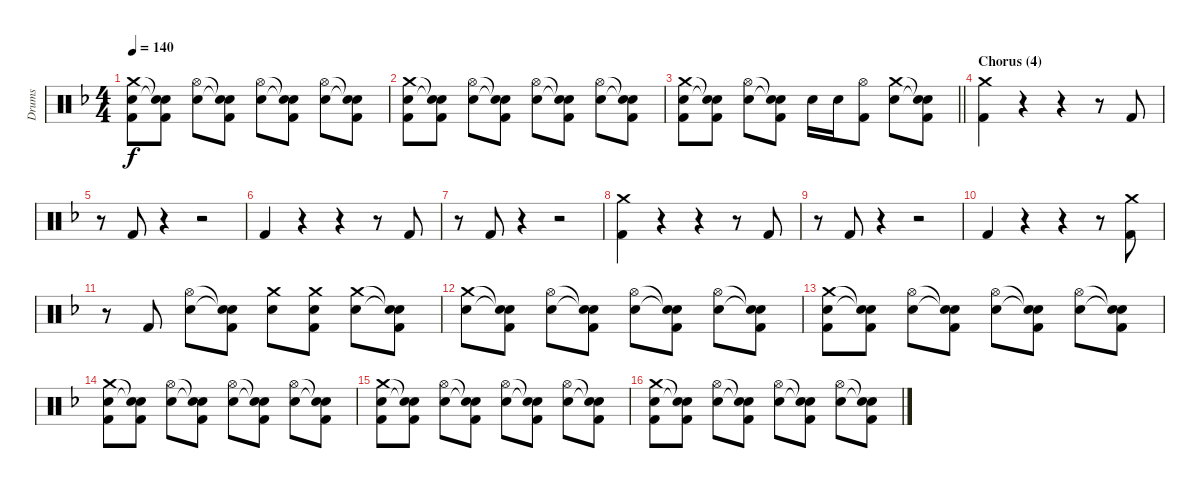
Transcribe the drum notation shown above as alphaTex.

\track ("Drums" "Drums") {instrument percussion}
\staff {score}
\articulation defaults
\ts (4 4)
\tempo 140
\clef neutral
\ks f
("Crash medium (hit)" "Electric Snare (hit)" "Kick (hit) 2").8{dy f} ("Snare (hit)"{t} "Snare (hit)"{t} "Kick (hit) 2").8 ("Hi-Hat (open)" "Electric Snare (hit)").8 ("Snare (hit)"{t} "Snare (hit)"{t} "Kick (hit) 2").8 ("Hi-Hat (open)" "Electric Snare (hit)").8 ("Snare (hit)"{t} "Snare (hit)"{t} "Kick (hit) 2").8 ("Hi-Hat (open)" "Electric Snare (hit)").8 ("Snare (hit)"{t} "Snare (hit)"{t} "Kick (hit) 2").8 |
("Crash medium (hit)" "Electric Snare (hit)" "Kick (hit) 2").8 ("Snare (hit)"{t} "Snare (hit)"{t} "Kick (hit) 2").8 ("Hi-Hat (open)" "Electric Snare (hit)").8 ("Snare (hit)"{t} "Snare (hit)"{t} "Kick (hit) 2").8 ("Hi-Hat (open)" "Electric Snare (hit)").8 ("Snare (hit)"{t} "Snare (hit)"{t} "Kick (hit) 2").8 ("Hi-Hat (open)" "Electric Snare (hit)").8 ("Snare (hit)"{t} "Snare (hit)"{t} "Kick (hit) 2").8 |
\barLineRight lightlight
("Crash medium (hit)" "Electric Snare (hit)" "Kick (hit) 2").8 ("Snare (hit)"{t} "Snare (hit)"{t} "Kick (hit) 2").8 ("Hi-Hat (open)" "Electric Snare (hit)").8 ("Snare (hit)"{t} "Snare (hit)"{t} "Kick (hit) 2").8 "Electric Snare (hit)".16 "Electric Snare (hit)".16 ("Hi-Hat (open)" "Kick (hit) 2").8 ("Crash medium (hit)" "Electric Snare (hit)").8 ("Snare (hit)"{t} "Snare (hit)"{t} "Kick (hit) 2").8 |
\section ("" "Chorus (4)")
("Crash medium (hit)" "Kick (hit) 2").4 r.4 r.4 r.8 "Kick (hit) 2".8 |
r.8 "Kick (hit) 2".8 r.4 r.2 |
"Kick (hit) 2".4 r.4 r.4 r.8 "Kick (hit) 2".8 |
r.8 "Kick (hit) 2".8 r.4 r.2 |
("Crash medium (hit)" "Kick (hit) 2").4 r.4 r.4 r.8 "Kick (hit) 2".8 |
r.8 "Kick (hit) 2".8 r.4 r.2 |
"Kick (hit) 2".4 r.4 r.4 r.8 ("Crash medium (hit)" "Kick (hit) 2").8 |
r.8 "Kick (hit) 2".8 ("Hi-Hat (open)" "Electric Snare (hit)").8 ("Snare (hit)"{t} "Snare (hit)"{t} "Kick (hit) 2").8 ("Crash medium (hit)" "Electric Snare (hit)").8 ("Crash medium (hit)" "Electric Snare (hit)" "Kick (hit) 2").8 ("Crash medium (hit)" "Electric Snare (hit)").8 ("Snare (hit)"{t} "Snare (hit)"{t} "Kick (hit) 2").8 |
("Crash medium (hit)" "Electric Snare (hit)").8 ("Snare (hit)"{t} "Snare (hit)"{t} "Kick (hit) 2").8 ("Hi-Hat (open)" "Electric Snare (hit)").8 ("Snare (hit)"{t} "Snare (hit)"{t} "Kick (hit) 2").8 ("Hi-Hat (open)" "Electric Snare (hit)").8 ("Snare (hit)"{t} "Snare (hit)"{t} "Kick (hit) 2").8 ("Hi-Hat (open)" "Electric Snare (hit)").8 ("Snare (hit)"{t} "Snare (hit)"{t} "Kick (hit) 2").8 |
("Crash medium (hit)" "Electric Snare (hit)" "Kick (hit) 2").8 ("Snare (hit)"{t} "Snare (hit)"{t} "Kick (hit) 2").8 ("Hi-Hat (open)" "Electric Snare (hit)").8 ("Snare (hit)"{t} "Snare (hit)"{t} "Kick (hit) 2").8 ("Hi-Hat (open)" "Electric Snare (hit)").8 ("Snare (hit)"{t} "Snare (hit)"{t} "Kick (hit) 2").8 ("Hi-Hat (open)" "Electric Snare (hit)").8 ("Snare (hit)"{t} "Snare (hit)"{t} "Kick (hit) 2").8 |
("Crash medium (hit)" "Electric Snare (hit)" "Kick (hit) 2").8 ("Snare (hit)"{t} "Snare (hit)"{t} "Kick (hit) 2").8 ("Hi-Hat (open)" "Electric Snare (hit)").8 ("Snare (hit)"{t} "Snare (hit)"{t} "Kick (hit) 2").8 ("Hi-Hat (open)" "Electric Snare (hit)").8 ("Snare (hit)"{t} "Snare (hit)"{t} "Kick (hit) 2").8 ("Hi-Hat (open)" "Electric Snare (hit)").8 ("Snare (hit)"{t} "Snare (hit)"{t} "Kick (hit) 2").8 |
("Crash medium (hit)" "Electric Snare (hit)" "Kick (hit) 2").8 ("Snare (hit)"{t} "Snare (hit)"{t} "Kick (hit) 2").8 ("Hi-Hat (open)" "Electric Snare (hit)").8 ("Snare (hit)"{t} "Snare (hit)"{t} "Kick (hit) 2").8 ("Hi-Hat (open)" "Electric Snare (hit)").8 ("Snare (hit)"{t} "Snare (hit)"{t} "Kick (hit) 2").8 ("Hi-Hat (open)" "Electric Snare (hit)").8 ("Snare (hit)"{t} "Snare (hit)"{t} "Kick (hit) 2").8 |
("Crash medium (hit)" "Electric Snare (hit)" "Kick (hit) 2").8 ("Snare (hit)"{t} "Snare (hit)"{t} "Kick (hit) 2").8 ("Hi-Hat (open)" "Electric Snare (hit)").8 ("Snare (hit)"{t} "Snare (hit)"{t} "Kick (hit) 2").8 ("Hi-Hat (open)" "Electric Snare (hit)").8 ("Snare (hit)"{t} "Snare (hit)"{t} "Kick (hit) 2").8 ("Hi-Hat (open)" "Electric Snare (hit)").8 ("Snare (hit)"{t} "Snare (hit)"{t} "Kick (hit) 2").8
